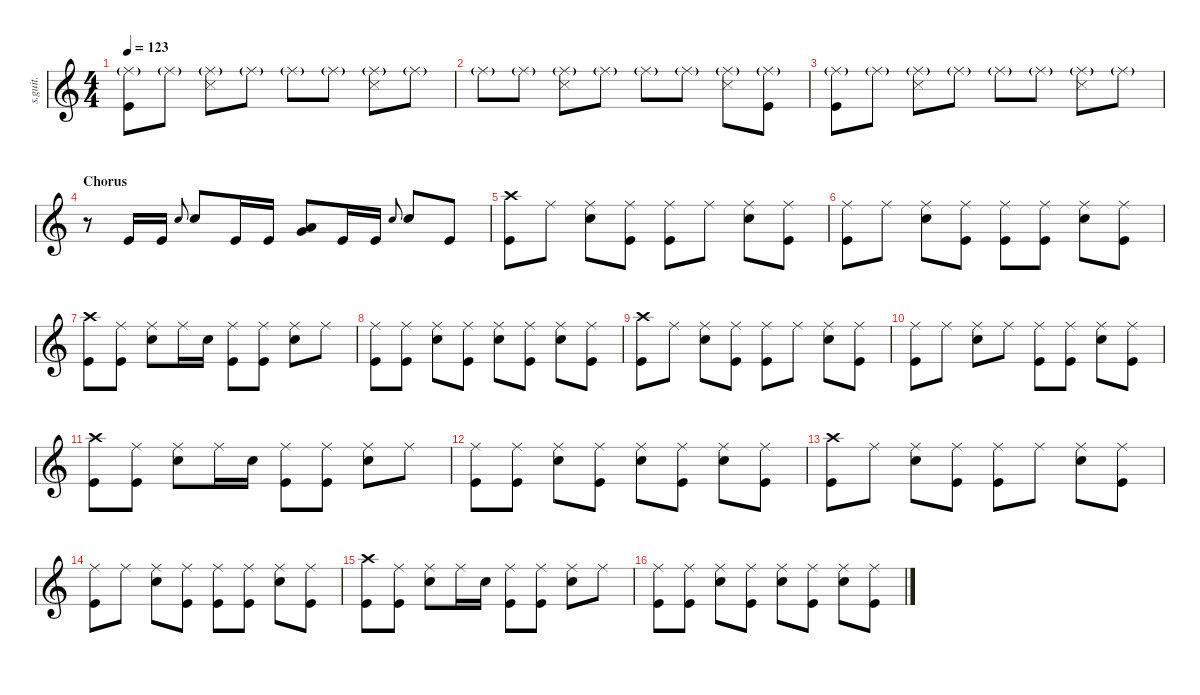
\defaultSystemsLayout 4
\hideDynamics
\bracketExtendMode nobrackets
\track ("Dave Grohl" "s.guit.") {instrument percussion}
\staff {score}
\articulation defaults
\ts (4 4)
\tempo 123
\clef g2
\ks c
("Ride (middle)"{g} "Kick (hit)").8{lyrics (0 "") lyrics (1 "") lyrics (2 "") lyrics (3 "") lyrics (4 "") dy f} "Ride (middle)"{g}.8{lyrics (0 "") lyrics (1 "") lyrics (2 "") lyrics (3 "") lyrics (4 "") dy fff} ("Ride (middle)"{g} "Snare (side stick) 3").8{lyrics (0 "") lyrics (1 "") lyrics (2 "") lyrics (3 "") lyrics (4 "") dy f} "Ride (middle)"{g}.8{lyrics (0 "") lyrics (1 "") lyrics (2 "") lyrics (3 "") lyrics (4 "") dy fff} "Ride (middle)"{g}.8{lyrics (0 "") lyrics (1 "") lyrics (2 "") lyrics (3 "") lyrics (4 "")} "Ride (middle)"{g}.8{lyrics (0 "") lyrics (1 "") lyrics (2 "") lyrics (3 "") lyrics (4 "")} ("Ride (middle)"{g} "Snare (side stick) 3").8{lyrics (0 "") lyrics (1 "") lyrics (2 "") lyrics (3 "") lyrics (4 "") dy f} "Ride (middle)"{g}.8{lyrics (0 "") lyrics (1 "") lyrics (2 "") lyrics (3 "") lyrics (4 "") dy fff} |
"Ride (middle)"{g}.8{lyrics (0 "") lyrics (1 "") lyrics (2 "") lyrics (3 "") lyrics (4 "")} "Ride (middle)"{g}.8{lyrics (0 "") lyrics (1 "") lyrics (2 "") lyrics (3 "") lyrics (4 "")} ("Ride (middle)"{g} "Snare (side stick) 3").8{lyrics (0 "") lyrics (1 "") lyrics (2 "") lyrics (3 "") lyrics (4 "") dy f} "Ride (middle)"{g}.8{lyrics (0 "") lyrics (1 "") lyrics (2 "") lyrics (3 "") lyrics (4 "") dy fff} "Ride (middle)"{g}.8{lyrics (0 "") lyrics (1 "") lyrics (2 "") lyrics (3 "") lyrics (4 "")} "Ride (middle)"{g}.8{lyrics (0 "") lyrics (1 "") lyrics (2 "") lyrics (3 "") lyrics (4 "")} ("Ride (middle)"{g} "Snare (side stick) 3").8{lyrics (0 "") lyrics (1 "") lyrics (2 "") lyrics (3 "") lyrics (4 "") dy f} ("Ride (middle)"{g} "Kick (hit)").8{lyrics (0 "") lyrics (1 "") lyrics (2 "") lyrics (3 "") lyrics (4 "")} |
("Ride (middle)"{g} "Kick (hit)").8{lyrics (0 "") lyrics (1 "") lyrics (2 "") lyrics (3 "") lyrics (4 "")} "Ride (middle)"{g}.8{lyrics (0 "") lyrics (1 "") lyrics (2 "") lyrics (3 "") lyrics (4 "") dy fff} ("Ride (middle)"{g} "Snare (side stick) 3").8{lyrics (0 "") lyrics (1 "") lyrics (2 "") lyrics (3 "") lyrics (4 "") dy f} "Ride (middle)"{g}.8{lyrics (0 "") lyrics (1 "") lyrics (2 "") lyrics (3 "") lyrics (4 "") dy fff} "Ride (middle)"{g}.8{lyrics (0 "") lyrics (1 "") lyrics (2 "") lyrics (3 "") lyrics (4 "")} "Ride (middle)"{g}.8{lyrics (0 "") lyrics (1 "") lyrics (2 "") lyrics (3 "") lyrics (4 "")} ("Ride (middle)"{g} "Snare (side stick) 3").8{lyrics (0 "") lyrics (1 "") lyrics (2 "") lyrics (3 "") lyrics (4 "") dy f} "Ride (middle)"{g}.8{lyrics (0 "") lyrics (1 "") lyrics (2 "") lyrics (3 "") lyrics (4 "") dy fff} |
\section ("" "Chorus")
r.8 "Kick (hit)".16{lyrics (0 "") lyrics (1 "") lyrics (2 "") lyrics (3 "") lyrics (4 "") dy ff} "Kick (hit)".16{lyrics (0 "") lyrics (1 "") lyrics (2 "") lyrics (3 "") lyrics (4 "")} "Snare (hit) 2".8{lyrics (0 "") lyrics (1 "") lyrics (2 "") lyrics (3 "") lyrics (4 "") gr onbeat} "Snare (hit) 2".8{lyrics (0 "") lyrics (1 "") lyrics (2 "") lyrics (3 "") lyrics (4 "")} "Kick (hit)".16{lyrics (0 "") lyrics (1 "") lyrics (2 "") lyrics (3 "") lyrics (4 "")} "Kick (hit)".16{lyrics (0 "") lyrics (1 "") lyrics (2 "") lyrics (3 "") lyrics (4 "")} ("Very Low Tom (hit)" "Low Tom (hit)").8{lyrics (0 "") lyrics (1 "") lyrics (2 "") lyrics (3 "") lyrics (4 "")} "Kick (hit)".16{lyrics (0 "") lyrics (1 "") lyrics (2 "") lyrics (3 "") lyrics (4 "")} "Kick (hit)".16{lyrics (0 "") lyrics (1 "") lyrics (2 "") lyrics (3 "") lyrics (4 "")} "Snare (hit) 2".8{lyrics (0 "") lyrics (1 "") lyrics (2 "") lyrics (3 "") lyrics (4 "") gr onbeat} "Snare (hit) 2".8{lyrics (0 "") lyrics (1 "") lyrics (2 "") lyrics (3 "") lyrics (4 "")} "Kick (hit)".8{lyrics (0 "") lyrics (1 "") lyrics (2 "") lyrics (3 "") lyrics (4 "")} |
("Crash high (hit)" "Kick (hit)").8{lyrics (0 "") lyrics (1 "") lyrics (2 "") lyrics (3 "") lyrics (4 "")} "Ride (middle)".8{lyrics (0 "") lyrics (1 "") lyrics (2 "") lyrics (3 "") lyrics (4 "")} ("Ride (middle)" "Snare (hit) 2").8{lyrics (0 "") lyrics (1 "") lyrics (2 "") lyrics (3 "") lyrics (4 "")} ("Kick (hit)" "Ride (middle)").8{lyrics (0 "") lyrics (1 "") lyrics (2 "") lyrics (3 "") lyrics (4 "")} ("Ride (middle)" "Kick (hit)").8{lyrics (0 "") lyrics (1 "") lyrics (2 "") lyrics (3 "") lyrics (4 "")} "Ride (middle)".8{lyrics (0 "") lyrics (1 "") lyrics (2 "") lyrics (3 "") lyrics (4 "")} ("Ride (middle)" "Snare (hit) 2").8{lyrics (0 "") lyrics (1 "") lyrics (2 "") lyrics (3 "") lyrics (4 "")} ("Kick (hit)" "Ride (middle)").8{lyrics (0 "") lyrics (1 "") lyrics (2 "") lyrics (3 "") lyrics (4 "")} |
("Ride (middle)" "Kick (hit)").8{lyrics (0 "") lyrics (1 "") lyrics (2 "") lyrics (3 "") lyrics (4 "")} "Ride (middle)".8{lyrics (0 "") lyrics (1 "") lyrics (2 "") lyrics (3 "") lyrics (4 "")} ("Ride (middle)" "Snare (hit) 2").8{lyrics (0 "") lyrics (1 "") lyrics (2 "") lyrics (3 "") lyrics (4 "")} ("Kick (hit)" "Ride (middle)").8{lyrics (0 "") lyrics (1 "") lyrics (2 "") lyrics (3 "") lyrics (4 "")} ("Ride (middle)" "Kick (hit)").8{lyrics (0 "") lyrics (1 "") lyrics (2 "") lyrics (3 "") lyrics (4 "")} ("Ride (middle)" "Kick (hit)").8{lyrics (0 "") lyrics (1 "") lyrics (2 "") lyrics (3 "") lyrics (4 "")} ("Ride (middle)" "Snare (hit) 2").8{lyrics (0 "") lyrics (1 "") lyrics (2 "") lyrics (3 "") lyrics (4 "")} ("Kick (hit)" "Ride (middle)").8{lyrics (0 "") lyrics (1 "") lyrics (2 "") lyrics (3 "") lyrics (4 "")} |
("Crash high (hit)" "Kick (hit)").8{lyrics (0 "") lyrics (1 "") lyrics (2 "") lyrics (3 "") lyrics (4 "")} ("Kick (hit)" "Ride (middle)").8{lyrics (0 "") lyrics (1 "") lyrics (2 "") lyrics (3 "") lyrics (4 "")} ("Ride (middle)" "Snare (hit) 2").8{lyrics (0 "") lyrics (1 "") lyrics (2 "") lyrics (3 "") lyrics (4 "")} "Ride (middle)".16{lyrics (0 "") lyrics (1 "") lyrics (2 "") lyrics (3 "") lyrics (4 "")} "Snare (hit) 2".16{lyrics (0 "") lyrics (1 "") lyrics (2 "") lyrics (3 "") lyrics (4 "") dy mf} ("Ride (middle)" "Kick (hit)").8{lyrics (0 "") lyrics (1 "") lyrics (2 "") lyrics (3 "") lyrics (4 "") dy ff} ("Ride (middle)" "Kick (hit)").8{lyrics (0 "") lyrics (1 "") lyrics (2 "") lyrics (3 "") lyrics (4 "")} ("Ride (middle)" "Snare (hit) 2").8{lyrics (0 "") lyrics (1 "") lyrics (2 "") lyrics (3 "") lyrics (4 "")} "Ride (middle)".8{lyrics (0 "") lyrics (1 "") lyrics (2 "") lyrics (3 "") lyrics (4 "")} |
("Ride (middle)" "Kick (hit)").8{lyrics (0 "") lyrics (1 "") lyrics (2 "") lyrics (3 "") lyrics (4 "")} ("Kick (hit)" "Ride (middle)").8{lyrics (0 "") lyrics (1 "") lyrics (2 "") lyrics (3 "") lyrics (4 "")} ("Snare (hit) 2" "Ride (middle)").8{lyrics (0 "") lyrics (1 "") lyrics (2 "") lyrics (3 "") lyrics (4 "")} ("Kick (hit)" "Ride (middle)").8{lyrics (0 "") lyrics (1 "") lyrics (2 "") lyrics (3 "") lyrics (4 "")} ("Snare (hit) 2" "Ride (middle)").8{lyrics (0 "") lyrics (1 "") lyrics (2 "") lyrics (3 "") lyrics (4 "")} ("Ride (middle)" "Kick (hit)").8{lyrics (0 "") lyrics (1 "") lyrics (2 "") lyrics (3 "") lyrics (4 "")} ("Snare (hit) 2" "Ride (middle)").8{lyrics (0 "") lyrics (1 "") lyrics (2 "") lyrics (3 "") lyrics (4 "")} ("Kick (hit)" "Ride (middle)").8{lyrics (0 "") lyrics (1 "") lyrics (2 "") lyrics (3 "") lyrics (4 "")} |
("Crash high (hit)" "Kick (hit)").8{lyrics (0 "") lyrics (1 "") lyrics (2 "") lyrics (3 "") lyrics (4 "")} "Ride (middle)".8{lyrics (0 "") lyrics (1 "") lyrics (2 "") lyrics (3 "") lyrics (4 "")} ("Ride (middle)" "Snare (hit) 2").8{lyrics (0 "") lyrics (1 "") lyrics (2 "") lyrics (3 "") lyrics (4 "")} ("Kick (hit)" "Ride (middle)").8{lyrics (0 "") lyrics (1 "") lyrics (2 "") lyrics (3 "") lyrics (4 "")} ("Ride (middle)" "Kick (hit)").8{lyrics (0 "") lyrics (1 "") lyrics (2 "") lyrics (3 "") lyrics (4 "")} "Ride (middle)".8{lyrics (0 "") lyrics (1 "") lyrics (2 "") lyrics (3 "") lyrics (4 "")} ("Ride (middle)" "Snare (hit) 2").8{lyrics (0 "") lyrics (1 "") lyrics (2 "") lyrics (3 "") lyrics (4 "")} ("Kick (hit)" "Ride (middle)").8{lyrics (0 "") lyrics (1 "") lyrics (2 "") lyrics (3 "") lyrics (4 "")} |
("Ride (middle)" "Kick (hit)").8{lyrics (0 "") lyrics (1 "") lyrics (2 "") lyrics (3 "") lyrics (4 "")} "Ride (middle)".8{lyrics (0 "") lyrics (1 "") lyrics (2 "") lyrics (3 "") lyrics (4 "")} ("Ride (middle)" "Snare (hit) 2").8{lyrics (0 "") lyrics (1 "") lyrics (2 "") lyrics (3 "") lyrics (4 "")} "Ride (middle)".8{lyrics (0 "") lyrics (1 "") lyrics (2 "") lyrics (3 "") lyrics (4 "")} ("Ride (middle)" "Kick (hit)").8{lyrics (0 "") lyrics (1 "") lyrics (2 "") lyrics (3 "") lyrics (4 "")} ("Ride (middle)" "Kick (hit)").8{lyrics (0 "") lyrics (1 "") lyrics (2 "") lyrics (3 "") lyrics (4 "")} ("Ride (middle)" "Snare (hit) 2").8{lyrics (0 "") lyrics (1 "") lyrics (2 "") lyrics (3 "") lyrics (4 "")} ("Kick (hit)" "Ride (middle)").8{lyrics (0 "") lyrics (1 "") lyrics (2 "") lyrics (3 "") lyrics (4 "")} |
("Crash high (hit)" "Kick (hit)").8{lyrics (0 "") lyrics (1 "") lyrics (2 "") lyrics (3 "") lyrics (4 "")} ("Kick (hit)" "Ride (middle)").8{lyrics (0 "") lyrics (1 "") lyrics (2 "") lyrics (3 "") lyrics (4 "")} ("Ride (middle)" "Snare (hit) 2").8{lyrics (0 "") lyrics (1 "") lyrics (2 "") lyrics (3 "") lyrics (4 "")} "Ride (middle)".16{lyrics (0 "") lyrics (1 "") lyrics (2 "") lyrics (3 "") lyrics (4 "")} "Snare (hit) 2".16{lyrics (0 "") lyrics (1 "") lyrics (2 "") lyrics (3 "") lyrics (4 "") dy mf} ("Ride (middle)" "Kick (hit)").8{lyrics (0 "") lyrics (1 "") lyrics (2 "") lyrics (3 "") lyrics (4 "") dy ff} ("Ride (middle)" "Kick (hit)").8{lyrics (0 "") lyrics (1 "") lyrics (2 "") lyrics (3 "") lyrics (4 "")} ("Ride (middle)" "Snare (hit) 2").8{lyrics (0 "") lyrics (1 "") lyrics (2 "") lyrics (3 "") lyrics (4 "")} "Ride (middle)".8{lyrics (0 "") lyrics (1 "") lyrics (2 "") lyrics (3 "") lyrics (4 "")} |
("Ride (middle)" "Kick (hit)").8{lyrics (0 "") lyrics (1 "") lyrics (2 "") lyrics (3 "") lyrics (4 "")} ("Kick (hit)" "Ride (middle)").8{lyrics (0 "") lyrics (1 "") lyrics (2 "") lyrics (3 "") lyrics (4 "")} ("Snare (hit) 2" "Ride (middle)").8{lyrics (0 "") lyrics (1 "") lyrics (2 "") lyrics (3 "") lyrics (4 "")} ("Kick (hit)" "Ride (middle)").8{lyrics (0 "") lyrics (1 "") lyrics (2 "") lyrics (3 "") lyrics (4 "")} ("Snare (hit) 2" "Ride (middle)").8{lyrics (0 "") lyrics (1 "") lyrics (2 "") lyrics (3 "") lyrics (4 "")} ("Ride (middle)" "Kick (hit)").8{lyrics (0 "") lyrics (1 "") lyrics (2 "") lyrics (3 "") lyrics (4 "")} ("Snare (hit) 2" "Ride (middle)").8{lyrics (0 "") lyrics (1 "") lyrics (2 "") lyrics (3 "") lyrics (4 "")} ("Kick (hit)" "Ride (middle)").8{lyrics (0 "") lyrics (1 "") lyrics (2 "") lyrics (3 "") lyrics (4 "")} |
("Crash high (hit)" "Kick (hit)").8{lyrics (0 "") lyrics (1 "") lyrics (2 "") lyrics (3 "") lyrics (4 "")} "Ride (middle)".8{lyrics (0 "") lyrics (1 "") lyrics (2 "") lyrics (3 "") lyrics (4 "")} ("Ride (middle)" "Snare (hit) 2").8{lyrics (0 "") lyrics (1 "") lyrics (2 "") lyrics (3 "") lyrics (4 "")} ("Kick (hit)" "Ride (middle)").8{lyrics (0 "") lyrics (1 "") lyrics (2 "") lyrics (3 "") lyrics (4 "")} ("Ride (middle)" "Kick (hit)").8{lyrics (0 "") lyrics (1 "") lyrics (2 "") lyrics (3 "") lyrics (4 "")} "Ride (middle)".8{lyrics (0 "") lyrics (1 "") lyrics (2 "") lyrics (3 "") lyrics (4 "")} ("Ride (middle)" "Snare (hit) 2").8{lyrics (0 "") lyrics (1 "") lyrics (2 "") lyrics (3 "") lyrics (4 "")} ("Kick (hit)" "Ride (middle)").8{lyrics (0 "") lyrics (1 "") lyrics (2 "") lyrics (3 "") lyrics (4 "")} |
("Ride (middle)" "Kick (hit)").8{lyrics (0 "") lyrics (1 "") lyrics (2 "") lyrics (3 "") lyrics (4 "")} "Ride (middle)".8{lyrics (0 "") lyrics (1 "") lyrics (2 "") lyrics (3 "") lyrics (4 "")} ("Ride (middle)" "Snare (hit) 2").8{lyrics (0 "") lyrics (1 "") lyrics (2 "") lyrics (3 "") lyrics (4 "")} ("Kick (hit)" "Ride (middle)").8{lyrics (0 "") lyrics (1 "") lyrics (2 "") lyrics (3 "") lyrics (4 "")} ("Ride (middle)" "Kick (hit)").8{lyrics (0 "") lyrics (1 "") lyrics (2 "") lyrics (3 "") lyrics (4 "")} ("Ride (middle)" "Kick (hit)").8{lyrics (0 "") lyrics (1 "") lyrics (2 "") lyrics (3 "") lyrics (4 "")} ("Ride (middle)" "Snare (hit) 2").8{lyrics (0 "") lyrics (1 "") lyrics (2 "") lyrics (3 "") lyrics (4 "")} ("Kick (hit)" "Ride (middle)").8{lyrics (0 "") lyrics (1 "") lyrics (2 "") lyrics (3 "") lyrics (4 "")} |
("Crash high (hit)" "Kick (hit)").8{lyrics (0 "") lyrics (1 "") lyrics (2 "") lyrics (3 "") lyrics (4 "")} ("Kick (hit)" "Ride (middle)").8{lyrics (0 "") lyrics (1 "") lyrics (2 "") lyrics (3 "") lyrics (4 "")} ("Ride (middle)" "Snare (hit) 2").8{lyrics (0 "") lyrics (1 "") lyrics (2 "") lyrics (3 "") lyrics (4 "")} "Ride (middle)".16{lyrics (0 "") lyrics (1 "") lyrics (2 "") lyrics (3 "") lyrics (4 "")} "Snare (hit) 2".16{lyrics (0 "") lyrics (1 "") lyrics (2 "") lyrics (3 "") lyrics (4 "") dy mf} ("Ride (middle)" "Kick (hit)").8{lyrics (0 "") lyrics (1 "") lyrics (2 "") lyrics (3 "") lyrics (4 "") dy ff} ("Ride (middle)" "Kick (hit)").8{lyrics (0 "") lyrics (1 "") lyrics (2 "") lyrics (3 "") lyrics (4 "")} ("Ride (middle)" "Snare (hit) 2").8{lyrics (0 "") lyrics (1 "") lyrics (2 "") lyrics (3 "") lyrics (4 "")} "Ride (middle)".8{lyrics (0 "") lyrics (1 "") lyrics (2 "") lyrics (3 "") lyrics (4 "")} |
("Ride (middle)" "Kick (hit)").8{lyrics (0 "") lyrics (1 "") lyrics (2 "") lyrics (3 "") lyrics (4 "")} ("Kick (hit)" "Ride (middle)").8{lyrics (0 "") lyrics (1 "") lyrics (2 "") lyrics (3 "") lyrics (4 "")} ("Snare (hit) 2" "Ride (middle)").8{lyrics (0 "") lyrics (1 "") lyrics (2 "") lyrics (3 "") lyrics (4 "")} ("Kick (hit)" "Ride (middle)").8{lyrics (0 "") lyrics (1 "") lyrics (2 "") lyrics (3 "") lyrics (4 "")} ("Snare (hit) 2" "Ride (middle)").8{lyrics (0 "") lyrics (1 "") lyrics (2 "") lyrics (3 "") lyrics (4 "")} ("Ride (middle)" "Kick (hit)").8{lyrics (0 "") lyrics (1 "") lyrics (2 "") lyrics (3 "") lyrics (4 "")} ("Snare (hit) 2" "Ride (middle)").8{lyrics (0 "") lyrics (1 "") lyrics (2 "") lyrics (3 "") lyrics (4 "")} ("Kick (hit)" "Ride (middle)").8{lyrics (0 "") lyrics (1 "") lyrics (2 "") lyrics (3 "") lyrics (4 "")}
